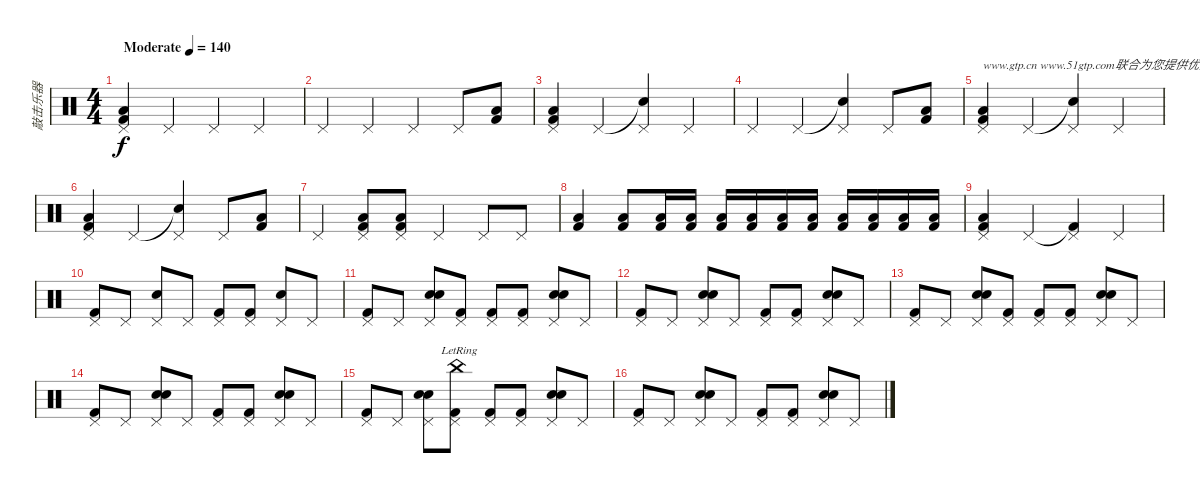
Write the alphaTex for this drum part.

\track ("敲击乐器" "敲击乐器") {instrument percussion}
\staff {score}
\articulation defaults
\ts (4 4)
\tempo (140 "Moderate")
\clef neutral
\ks c
("Low Floor Tom (hit)" "Kick (hit) 2" "Pedal Hi-Hat (hit)").4{dy f} "Pedal Hi-Hat (hit)".4 "Pedal Hi-Hat (hit)".4 "Pedal Hi-Hat (hit)".4 |
"Pedal Hi-Hat (hit)".4 "Pedal Hi-Hat (hit)".4 "Pedal Hi-Hat (hit)".4 "Pedal Hi-Hat (hit)".8 ("Low Floor Tom (hit)" "Kick (hit) 2").8 |
("Low Floor Tom (hit)" "Kick (hit) 2" "Pedal Hi-Hat (hit)").4 "Pedal Hi-Hat (hit)".4 ("Snare (hit)"{t} "Pedal Hi-Hat (hit)").4 "Pedal Hi-Hat (hit)".4 |
"Pedal Hi-Hat (hit)".4 "Pedal Hi-Hat (hit)".4 ("Snare (hit)"{t} "Pedal Hi-Hat (hit)").4 "Pedal Hi-Hat (hit)".8 ("Low Floor Tom (hit)" "Kick (hit) 2").8 |
("Low Floor Tom (hit)" "Kick (hit) 2" "Pedal Hi-Hat (hit)").4{txt "www.gtp.cn www.51gtp.com联合为您提供优秀的GTP!"} "Pedal Hi-Hat (hit)".4 ("Snare (hit)"{t} "Pedal Hi-Hat (hit)").4 "Pedal Hi-Hat (hit)".4 |
("Low Floor Tom (hit)" "Kick (hit) 2" "Pedal Hi-Hat (hit)").4 "Pedal Hi-Hat (hit)".4 ("Snare (hit)"{t} "Pedal Hi-Hat (hit)").4 "Pedal Hi-Hat (hit)".8 ("Low Floor Tom (hit)" "Kick (hit) 2").8 |
"Pedal Hi-Hat (hit)".4 ("Low Floor Tom (hit)" "Kick (hit) 2" "Pedal Hi-Hat (hit)").8 ("Low Floor Tom (hit)" "Kick (hit) 2" "Pedal Hi-Hat (hit)").8 "Pedal Hi-Hat (hit)".4 "Pedal Hi-Hat (hit)".8 "Pedal Hi-Hat (hit)".8 |
("Low Floor Tom (hit)" "Kick (hit) 2").4 ("Low Floor Tom (hit)" "Kick (hit) 2").8 ("Low Floor Tom (hit)" "Kick (hit) 2").16 ("Low Floor Tom (hit)" "Kick (hit) 2").16 ("Low Floor Tom (hit)" "Kick (hit) 2").16 ("Low Floor Tom (hit)" "Kick (hit) 2").16 ("Low Floor Tom (hit)" "Kick (hit) 2").16 ("Low Floor Tom (hit)" "Kick (hit) 2").16 ("Low Floor Tom (hit)" "Kick (hit) 2").16 ("Low Floor Tom (hit)" "Kick (hit) 2").16 ("Low Floor Tom (hit)" "Kick (hit) 2").16 ("Low Floor Tom (hit)" "Kick (hit) 2").16 |
("Low Floor Tom (hit)" "Kick (hit) 2" "Pedal Hi-Hat (hit)").4 "Pedal Hi-Hat (hit)".4 ("Kick (hit) 2"{t} "Pedal Hi-Hat (hit)").4 "Pedal Hi-Hat (hit)".4 |
("Kick (hit) 2" "Pedal Hi-Hat (hit)").8 "Pedal Hi-Hat (hit)".8 ("Electric Snare (hit)" "Pedal Hi-Hat (hit)").8 "Pedal Hi-Hat (hit)".8 ("Kick (hit) 2" "Pedal Hi-Hat (hit)").8 ("Kick (hit) 2" "Pedal Hi-Hat (hit)").8 ("Electric Snare (hit)" "Pedal Hi-Hat (hit)").8 "Pedal Hi-Hat (hit)".8 |
("Kick (hit) 2" "Pedal Hi-Hat (hit)").8 "Pedal Hi-Hat (hit)".8 ("Snare (hit) 2" "Electric Snare (hit)" "Pedal Hi-Hat (hit)").8 ("Kick (hit) 2" "Pedal Hi-Hat (hit)").8 ("Kick (hit) 2" "Pedal Hi-Hat (hit)").8 ("Kick (hit) 2" "Pedal Hi-Hat (hit)").8 ("Snare (hit) 2" "Electric Snare (hit)" "Pedal Hi-Hat (hit)").8 "Pedal Hi-Hat (hit)".8 |
("Kick (hit) 2" "Pedal Hi-Hat (hit)").8 "Pedal Hi-Hat (hit)".8 ("Snare (hit) 2" "Electric Snare (hit)" "Pedal Hi-Hat (hit)").8 "Pedal Hi-Hat (hit)".8 ("Kick (hit) 2" "Pedal Hi-Hat (hit)").8 ("Kick (hit) 2" "Pedal Hi-Hat (hit)").8 ("Snare (hit) 2" "Electric Snare (hit)" "Pedal Hi-Hat (hit)").8 "Pedal Hi-Hat (hit)".8 |
("Kick (hit) 2" "Pedal Hi-Hat (hit)").8 "Pedal Hi-Hat (hit)".8 ("Snare (hit) 2" "Electric Snare (hit)" "Pedal Hi-Hat (hit)").8 ("Kick (hit) 2" "Pedal Hi-Hat (hit)").8 ("Kick (hit) 2" "Pedal Hi-Hat (hit)").8 ("Kick (hit) 2" "Pedal Hi-Hat (hit)").8 ("Snare (hit) 2" "Electric Snare (hit)" "Pedal Hi-Hat (hit)").8 "Pedal Hi-Hat (hit)".8 |
("Kick (hit) 2" "Pedal Hi-Hat (hit)").8 "Pedal Hi-Hat (hit)".8 ("Snare (hit) 2" "Electric Snare (hit)" "Pedal Hi-Hat (hit)").8 "Pedal Hi-Hat (hit)".8 ("Kick (hit) 2" "Pedal Hi-Hat (hit)").8 ("Kick (hit) 2" "Pedal Hi-Hat (hit)").8 ("Snare (hit) 2" "Electric Snare (hit)" "Pedal Hi-Hat (hit)").8 "Pedal Hi-Hat (hit)".8 |
("Kick (hit) 2" "Pedal Hi-Hat (hit)").8 "Pedal Hi-Hat (hit)".8 ("Snare (hit) 2" "Electric Snare (hit)" "Pedal Hi-Hat (hit)").8 ("Kick (hit) 2" "China (hit)"{lr} "Pedal Hi-Hat (hit)").8 ("Kick (hit) 2" "Pedal Hi-Hat (hit)").8 ("Kick (hit) 2" "Pedal Hi-Hat (hit)").8 ("Snare (hit) 2" "Electric Snare (hit)" "Pedal Hi-Hat (hit)").8 "Pedal Hi-Hat (hit)".8 |
("Kick (hit) 2" "Pedal Hi-Hat (hit)").8 "Pedal Hi-Hat (hit)".8 ("Snare (hit) 2" "Electric Snare (hit)" "Pedal Hi-Hat (hit)").8 "Pedal Hi-Hat (hit)".8 ("Kick (hit) 2" "Pedal Hi-Hat (hit)").8 ("Kick (hit) 2" "Pedal Hi-Hat (hit)").8 ("Snare (hit) 2" "Electric Snare (hit)" "Pedal Hi-Hat (hit)").8 "Pedal Hi-Hat (hit)".8
